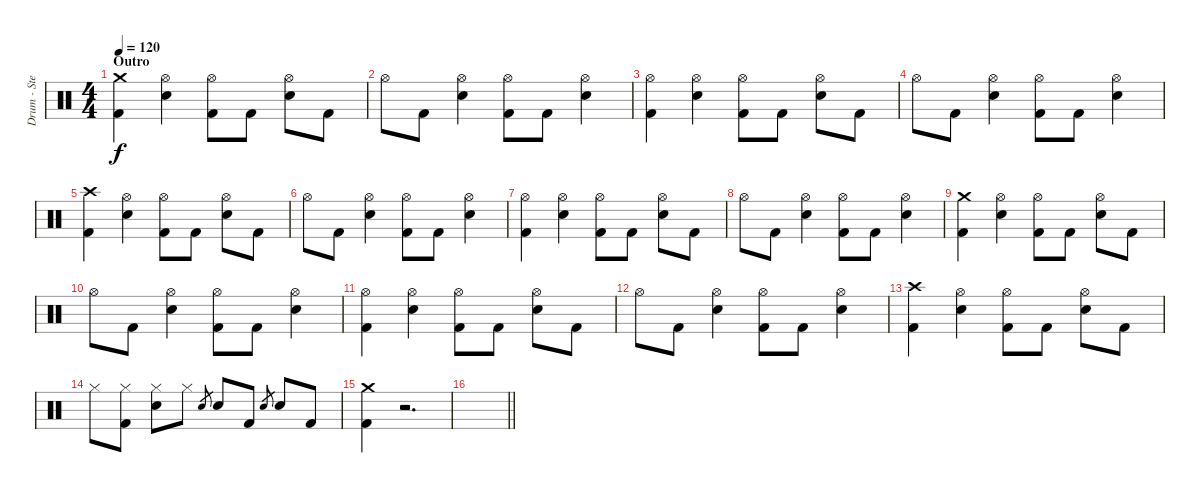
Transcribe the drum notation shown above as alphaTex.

\track ("Drum - Stevie Morley Item" "Drum - Ste") {instrument percussion}
\staff {score}
\articulation defaults
\ts (4 4)
\section ("" "Outro")
\tempo 120
\clef neutral
\ks c
("Crash medium (hit)" "Kick (hit) 2").4{dy f} ("Hi-Hat (open)" "Snare (hit) 2").4 ("Hi-Hat (open)" "Kick (hit) 2").8 "Kick (hit) 2".8 ("Hi-Hat (open)" "Snare (hit) 2").8 "Kick (hit) 2".8 |
"Hi-Hat (open)".8 "Kick (hit) 2".8 ("Hi-Hat (open)" "Snare (hit) 2").4 ("Hi-Hat (open)" "Kick (hit) 2").8 "Kick (hit) 2".8 ("Hi-Hat (open)" "Snare (hit) 2").4 |
("Hi-Hat (open)" "Kick (hit) 2").4 ("Hi-Hat (open)" "Snare (hit) 2").4 ("Hi-Hat (open)" "Kick (hit) 2").8 "Kick (hit) 2".8 ("Hi-Hat (open)" "Snare (hit) 2").8 "Kick (hit) 2".8 |
"Hi-Hat (open)".8 "Kick (hit) 2".8 ("Hi-Hat (open)" "Snare (hit) 2").4 ("Hi-Hat (open)" "Kick (hit) 2").8 "Kick (hit) 2".8 ("Hi-Hat (open)" "Snare (hit) 2").4 |
("Crash high (hit)" "Kick (hit) 2").4 ("Hi-Hat (open)" "Snare (hit) 2").4 ("Hi-Hat (open)" "Kick (hit) 2").8 "Kick (hit) 2".8 ("Hi-Hat (open)" "Snare (hit) 2").8 "Kick (hit) 2".8 |
"Hi-Hat (open)".8 "Kick (hit) 2".8 ("Hi-Hat (open)" "Snare (hit) 2").4 ("Hi-Hat (open)" "Kick (hit) 2").8 "Kick (hit) 2".8 ("Hi-Hat (open)" "Snare (hit) 2").4 |
("Hi-Hat (open)" "Kick (hit) 2").4 ("Hi-Hat (open)" "Snare (hit) 2").4 ("Hi-Hat (open)" "Kick (hit) 2").8 "Kick (hit) 2".8 ("Hi-Hat (open)" "Snare (hit) 2").8 "Kick (hit) 2".8 |
"Hi-Hat (open)".8 "Kick (hit) 2".8 ("Hi-Hat (open)" "Snare (hit) 2").4 ("Hi-Hat (open)" "Kick (hit) 2").8 "Kick (hit) 2".8 ("Hi-Hat (open)" "Snare (hit) 2").4 |
("Crash medium (hit)" "Kick (hit) 2").4 ("Hi-Hat (open)" "Snare (hit) 2").4 ("Hi-Hat (open)" "Kick (hit) 2").8 "Kick (hit) 2".8 ("Hi-Hat (open)" "Snare (hit) 2").8 "Kick (hit) 2".8 |
"Hi-Hat (open)".8 "Kick (hit) 2".8 ("Hi-Hat (open)" "Snare (hit) 2").4 ("Hi-Hat (open)" "Kick (hit) 2").8 "Kick (hit) 2".8 ("Hi-Hat (open)" "Snare (hit) 2").4 |
("Hi-Hat (open)" "Kick (hit) 2").4 ("Hi-Hat (open)" "Snare (hit) 2").4 ("Hi-Hat (open)" "Kick (hit) 2").8 "Kick (hit) 2".8 ("Hi-Hat (open)" "Snare (hit) 2").8 "Kick (hit) 2".8 |
"Hi-Hat (open)".8 "Kick (hit) 2".8 ("Hi-Hat (open)" "Snare (hit) 2").4 ("Hi-Hat (open)" "Kick (hit) 2").8 "Kick (hit) 2".8 ("Hi-Hat (open)" "Snare (hit) 2").4 |
("Crash high (hit)" "Kick (hit) 2").4 ("Hi-Hat (open)" "Snare (hit) 2").4 ("Hi-Hat (open)" "Kick (hit) 2").8 "Kick (hit) 2".8 ("Hi-Hat (open)" "Snare (hit) 2").8 "Kick (hit) 2".8 |
"Hi-Hat (closed)".8 ("Hi-Hat (closed)" "Kick (hit) 2").8 ("Hi-Hat (closed)" "Snare (hit) 2").8 "Hi-Hat (closed)".8 "Snare (hit) 2".8{gr} "Snare (hit) 2".8 "Kick (hit) 2".8 "Snare (hit) 2".8{gr} "Snare (hit) 2".8 "Kick (hit) 2".8 |
("Kick (hit) 2" "Crash medium (hit)").4 r.2{d} |
\barLineRight lightlight
